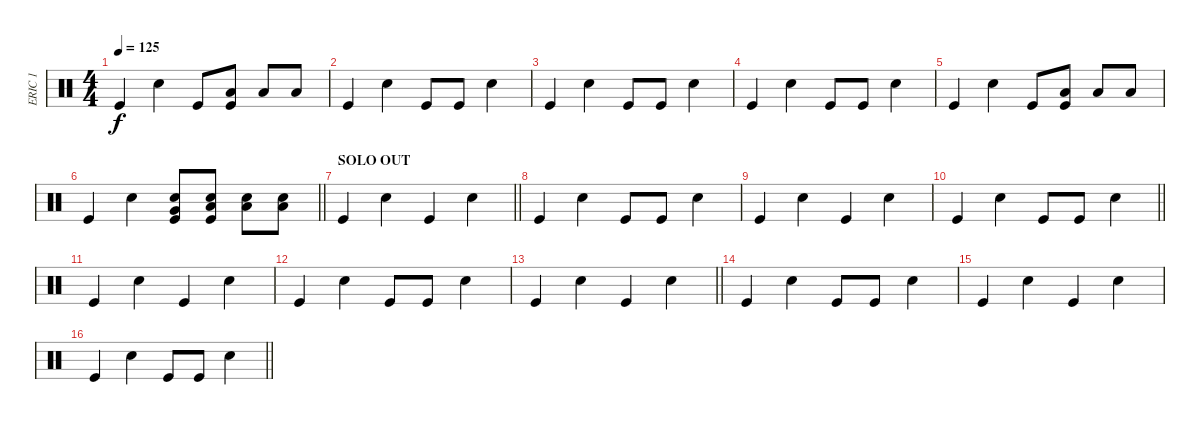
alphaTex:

\track ("ERIC 1" "ERIC 1") {instrument percussion}
\staff {score}
\articulation defaults
\ts (4 4)
\tempo 125
\clef neutral
\ks c "Kick (hit)".4{dy f} "Electric Snare (hit)".4 "Kick (hit)".8
("Low Tom (hit)" "Kick (hit)").8 "Low Floor Tom (hit)".8 "Low Floor Tom (hit)".8 |
"Kick (hit)".4 "Electric Snare (hit)".4 "Kick (hit)".8 "Kick (hit)".8 "Electric Snare (hit)".4 |
"Kick (hit)".4 "Electric Snare (hit)".4 "Kick (hit)".8 "Kick (hit)".8 "Electric Snare (hit)".4 |
"Kick (hit)".4 "Electric Snare (hit)".4 "Kick (hit)".8 "Kick (hit)".8 "Electric Snare (hit)".4 |
"Kick (hit)".4 "Electric Snare (hit)".4 "Kick (hit)".8 ("Low Tom (hit)" "Kick (hit)").8 "Low Floor Tom (hit)".8 "Low Floor Tom (hit)".8 |
\barLineRight lightlight "Kick (hit)".4 "Electric Snare (hit)".4
("Electric Snare (hit)" "Very Low Tom (hit)" "Kick (hit)").8 ("Electric Snare (hit)" "Low Tom (hit)" "Kick (hit)").8 ("Electric Snare (hit)" "Low Floor Tom (hit)").8 ("Electric Snare (hit)" "Low Floor Tom (hit)").8 |
\section ("" "SOLO OUT")
\barLineRight lightlight "Kick (hit)".4 "Electric Snare (hit)".4 "Kick (hit)".4 "Electric Snare (hit)".4
|
"Kick (hit)".4 "Electric Snare (hit)".4 "Kick (hit)".8 "Kick (hit)".8 "Electric Snare (hit)".4 |
"Kick (hit)".4 "Electric Snare (hit)".4 "Kick (hit)".4 "Electric Snare (hit)".4 |
\barLineRight lightlight "Kick (hit)".4 "Electric Snare (hit)".4 "Kick (hit)".8 "Kick (hit)".8 "Electric Snare (hit)".4
|
"Kick (hit)".4 "Electric Snare (hit)".4 "Kick (hit)".4 "Electric Snare (hit)".4 |
"Kick (hit)".4 "Electric Snare (hit)".4 "Kick (hit)".8 "Kick (hit)".8 "Electric Snare (hit)".4 |
\barLineRight lightlight "Kick (hit)".4 "Electric Snare (hit)".4 "Kick (hit)".4 "Electric Snare (hit)".4
|
"Kick (hit)".4 "Electric Snare (hit)".4 "Kick (hit)".8 "Kick (hit)".8 "Electric Snare (hit)".4 |
"Kick (hit)".4 "Electric Snare (hit)".4 "Kick (hit)".4 "Electric Snare (hit)".4 |
\barLineRight lightlight "Kick (hit)".4 "Electric Snare (hit)".4 "Kick (hit)".8 "Kick (hit)".8 "Electric Snare (hit)".4
